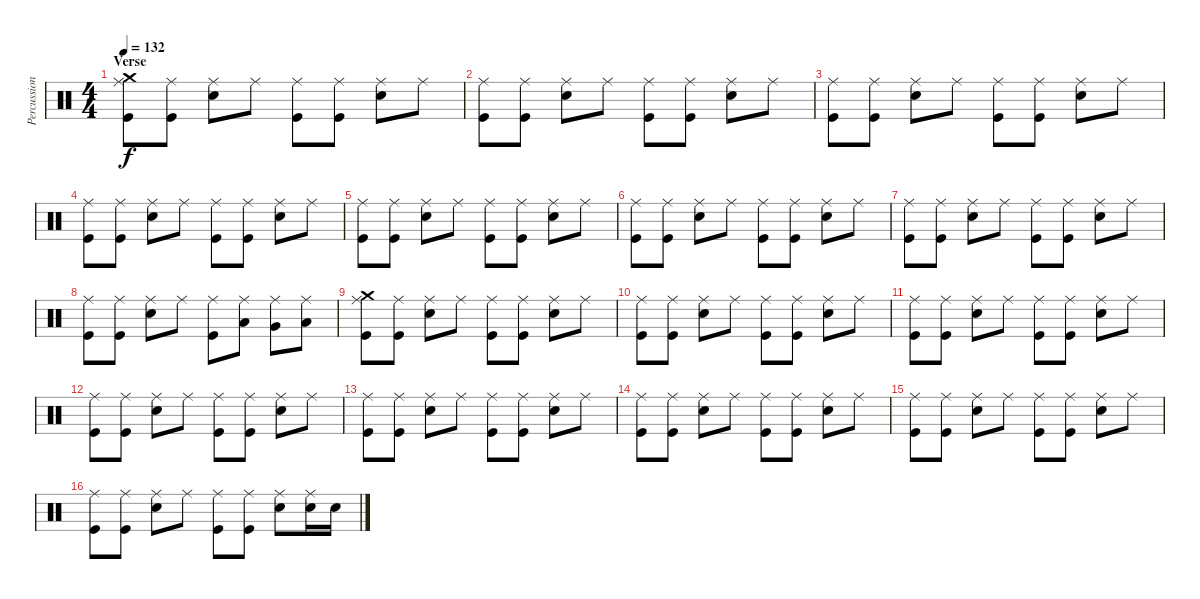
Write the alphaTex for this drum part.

\track ("Percussions" "Percussion") {instrument percussion}
\staff {score}
\articulation defaults
\ts (4 4)
\section ("" "Verse")
\tempo 132
\clef neutral
\ks c
("Ride (middle)" "Crash medium (hit)" "Kick (hit)").8{dy f} ("Ride (middle)" "Kick (hit)").8 ("Ride (middle)" "Snare (hit) 2").8 "Ride (middle)".8 ("Ride (middle)" "Kick (hit)").8 ("Ride (middle)" "Kick (hit)").8 ("Ride (middle)" "Snare (hit) 2").8 "Ride (middle)".8 |
("Ride (middle)" "Kick (hit)").8 ("Ride (middle)" "Kick (hit)").8 ("Ride (middle)" "Snare (hit) 2").8 "Ride (middle)".8 ("Ride (middle)" "Kick (hit)").8 ("Ride (middle)" "Kick (hit)").8 ("Ride (middle)" "Snare (hit) 2").8 "Ride (middle)".8 |
("Ride (middle)" "Kick (hit)").8 ("Ride (middle)" "Kick (hit)").8 ("Ride (middle)" "Snare (hit) 2").8 "Ride (middle)".8 ("Ride (middle)" "Kick (hit)").8 ("Ride (middle)" "Kick (hit)").8 ("Ride (middle)" "Snare (hit) 2").8 "Ride (middle)".8 |
("Ride (middle)" "Kick (hit)").8 ("Ride (middle)" "Kick (hit)").8 ("Ride (middle)" "Snare (hit) 2").8 "Ride (middle)".8 ("Ride (middle)" "Kick (hit)").8 ("Ride (middle)" "Kick (hit)").8 ("Ride (middle)" "Snare (hit) 2").8 "Ride (middle)".8 |
("Ride (middle)" "Kick (hit)").8 ("Ride (middle)" "Kick (hit)").8 ("Ride (middle)" "Snare (hit) 2").8 "Ride (middle)".8 ("Ride (middle)" "Kick (hit)").8 ("Ride (middle)" "Kick (hit)").8 ("Ride (middle)" "Snare (hit) 2").8 "Ride (middle)".8 |
("Ride (middle)" "Kick (hit)").8 ("Ride (middle)" "Kick (hit)").8 ("Ride (middle)" "Snare (hit) 2").8 "Ride (middle)".8 ("Ride (middle)" "Kick (hit)").8 ("Ride (middle)" "Kick (hit)").8 ("Ride (middle)" "Snare (hit) 2").8 "Ride (middle)".8 |
("Ride (middle)" "Kick (hit)").8 ("Ride (middle)" "Kick (hit)").8 ("Ride (middle)" "Snare (hit) 2").8 "Ride (middle)".8 ("Ride (middle)" "Kick (hit)").8 ("Ride (middle)" "Kick (hit)").8 ("Ride (middle)" "Snare (hit) 2").8 "Ride (middle)".8 |
("Ride (middle)" "Kick (hit)").8 ("Ride (middle)" "Kick (hit)").8 ("Ride (middle)" "Snare (hit) 2").8 "Ride (middle)".8 ("Ride (middle)" "Kick (hit)").8 ("Ride (middle)" "Low Tom (hit)").8 ("Ride (middle)" "Very Low Tom (hit)").8 ("Ride (middle)" "Low Floor Tom (hit)").8 |
("Ride (middle)" "Crash medium (hit)" "Kick (hit)").8 ("Ride (middle)" "Kick (hit)").8 ("Ride (middle)" "Snare (hit) 2").8 "Ride (middle)".8 ("Ride (middle)" "Kick (hit)").8 ("Ride (middle)" "Kick (hit)").8 ("Ride (middle)" "Snare (hit) 2").8 "Ride (middle)".8 |
("Ride (middle)" "Kick (hit)").8 ("Ride (middle)" "Kick (hit)").8 ("Ride (middle)" "Snare (hit) 2").8 "Ride (middle)".8 ("Ride (middle)" "Kick (hit)").8 ("Ride (middle)" "Kick (hit)").8 ("Ride (middle)" "Snare (hit) 2").8 "Ride (middle)".8 |
("Ride (middle)" "Kick (hit)").8 ("Ride (middle)" "Kick (hit)").8 ("Ride (middle)" "Snare (hit) 2").8 "Ride (middle)".8 ("Ride (middle)" "Kick (hit)").8 ("Ride (middle)" "Kick (hit)").8 ("Ride (middle)" "Snare (hit) 2").8 "Ride (middle)".8 |
("Ride (middle)" "Kick (hit)").8 ("Ride (middle)" "Kick (hit)").8 ("Ride (middle)" "Snare (hit) 2").8 "Ride (middle)".8 ("Ride (middle)" "Kick (hit)").8 ("Ride (middle)" "Kick (hit)").8 ("Ride (middle)" "Snare (hit) 2").8 "Ride (middle)".8 |
("Ride (middle)" "Kick (hit)").8 ("Ride (middle)" "Kick (hit)").8 ("Ride (middle)" "Snare (hit) 2").8 "Ride (middle)".8 ("Ride (middle)" "Kick (hit)").8 ("Ride (middle)" "Kick (hit)").8 ("Ride (middle)" "Snare (hit) 2").8 "Ride (middle)".8 |
("Ride (middle)" "Kick (hit)").8 ("Ride (middle)" "Kick (hit)").8 ("Ride (middle)" "Snare (hit) 2").8 "Ride (middle)".8 ("Ride (middle)" "Kick (hit)").8 ("Ride (middle)" "Kick (hit)").8 ("Ride (middle)" "Snare (hit) 2").8 "Ride (middle)".8 |
("Ride (middle)" "Kick (hit)").8 ("Ride (middle)" "Kick (hit)").8 ("Ride (middle)" "Snare (hit) 2").8 "Ride (middle)".8 ("Ride (middle)" "Kick (hit)").8 ("Ride (middle)" "Kick (hit)").8 ("Ride (middle)" "Snare (hit) 2").8 "Ride (middle)".8 |
("Ride (middle)" "Kick (hit)").8 ("Ride (middle)" "Kick (hit)").8 ("Ride (middle)" "Snare (hit) 2").8 "Ride (middle)".8 ("Ride (middle)" "Kick (hit)").8 ("Ride (middle)" "Kick (hit)").8 ("Ride (middle)" "Snare (hit) 2").8 ("Ride (middle)" "Snare (hit) 2").16 "Snare (hit) 2".16
